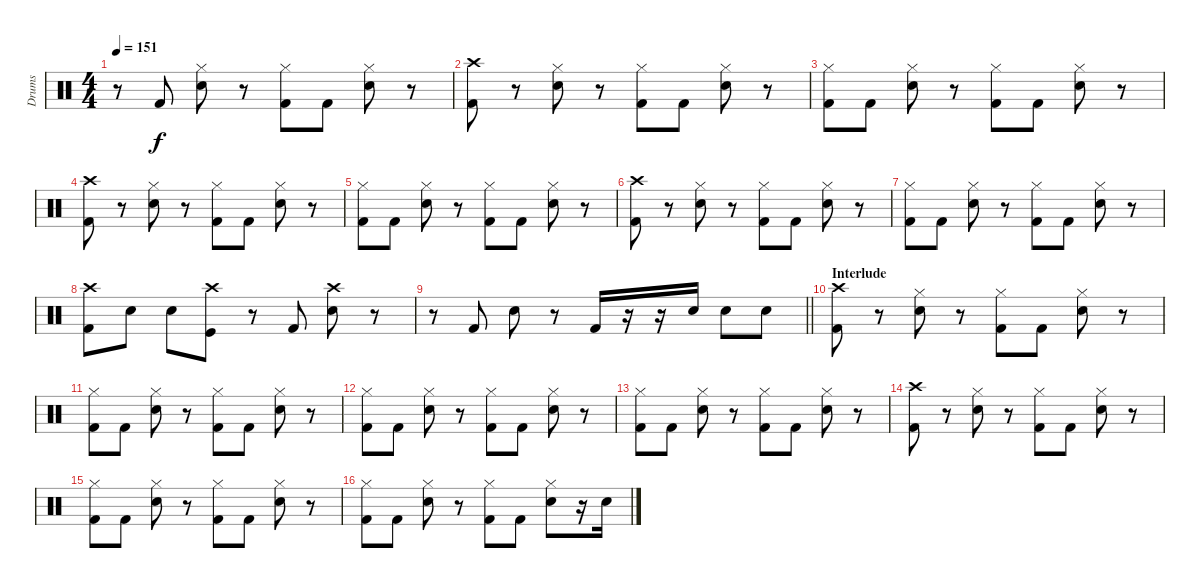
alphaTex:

\track ("Drums" "Drums") {instrument percussion}
\staff {score}
\articulation defaults
\ts (4 4)
\tempo 151
\clef neutral
\ks c
r.8{dy f} "Kick (hit) 2".8 ("Hi-Hat (closed)" "Snare (hit) 2").8 r.8 ("Hi-Hat (closed)" "Kick (hit) 2").8 "Kick (hit) 2".8 ("Hi-Hat (closed)" "Snare (hit) 2").8 r.8 |
("Crash high (hit)" "Kick (hit) 2").8 r.8 ("Hi-Hat (closed)" "Snare (hit) 2").8 r.8 ("Hi-Hat (closed)" "Kick (hit) 2").8 "Kick (hit) 2".8 ("Hi-Hat (closed)" "Snare (hit) 2").8 r.8 |
("Hi-Hat (closed)" "Kick (hit) 2").8 "Kick (hit) 2".8 ("Hi-Hat (closed)" "Snare (hit) 2").8 r.8 ("Hi-Hat (closed)" "Kick (hit) 2").8 "Kick (hit) 2".8 ("Hi-Hat (closed)" "Snare (hit) 2").8 r.8 |
("Crash high (hit)" "Kick (hit) 2").8 r.8 ("Hi-Hat (closed)" "Snare (hit) 2").8 r.8 ("Hi-Hat (closed)" "Kick (hit) 2").8 "Kick (hit) 2".8 ("Hi-Hat (closed)" "Snare (hit) 2").8 r.8 |
("Hi-Hat (closed)" "Kick (hit) 2").8 "Kick (hit) 2".8 ("Hi-Hat (closed)" "Snare (hit) 2").8 r.8 ("Hi-Hat (closed)" "Kick (hit) 2").8 "Kick (hit) 2".8 ("Hi-Hat (closed)" "Snare (hit) 2").8 r.8 |
("Crash high (hit)" "Kick (hit) 2").8 r.8 ("Hi-Hat (closed)" "Snare (hit) 2").8 r.8 ("Hi-Hat (closed)" "Kick (hit) 2").8 "Kick (hit) 2".8 ("Hi-Hat (closed)" "Snare (hit) 2").8 r.8 |
("Hi-Hat (closed)" "Kick (hit) 2").8 "Kick (hit) 2".8 ("Hi-Hat (closed)" "Snare (hit) 2").8 r.8 ("Hi-Hat (closed)" "Kick (hit) 2").8 "Kick (hit) 2".8 ("Hi-Hat (closed)" "Snare (hit) 2").8 r.8 |
("Crash high (hit)" "Kick (hit) 2").8 "Snare (hit) 2".8 "Snare (hit) 2".8 ("Crash high (hit)" "Kick (hit)").8 r.8 "Kick (hit) 2".8 ("Crash high (hit)" "Snare (hit) 2").8 r.8 |
\barLineRight lightlight
r.8 "Kick (hit) 2".8 "Snare (hit) 2".8 r.8 "Kick (hit) 2".16 r.16 r.16 "Snare (hit) 2".16 "Snare (hit) 2".8 "Snare (hit) 2".8 |
\section ("" "Interlude")
("Crash high (hit)" "Kick (hit) 2").8 r.8 ("Hi-Hat (closed)" "Snare (hit) 2").8 r.8 ("Hi-Hat (closed)" "Kick (hit) 2").8 "Kick (hit) 2".8 ("Hi-Hat (closed)" "Snare (hit) 2").8 r.8 |
("Hi-Hat (closed)" "Kick (hit) 2").8 "Kick (hit) 2".8 ("Hi-Hat (closed)" "Snare (hit) 2").8 r.8 ("Hi-Hat (closed)" "Kick (hit) 2").8 "Kick (hit) 2".8 ("Hi-Hat (closed)" "Snare (hit) 2").8 r.8 |
("Hi-Hat (closed)" "Kick (hit) 2").8 "Kick (hit) 2".8 ("Hi-Hat (closed)" "Snare (hit) 2").8 r.8 ("Hi-Hat (closed)" "Kick (hit) 2").8 "Kick (hit) 2".8 ("Hi-Hat (closed)" "Snare (hit) 2").8 r.8 |
("Hi-Hat (closed)" "Kick (hit) 2").8 "Kick (hit) 2".8 ("Hi-Hat (closed)" "Snare (hit) 2").8 r.8 ("Hi-Hat (closed)" "Kick (hit) 2").8 "Kick (hit) 2".8 ("Hi-Hat (closed)" "Snare (hit) 2").8 r.8 |
("Crash high (hit)" "Kick (hit) 2").8 r.8 ("Hi-Hat (closed)" "Snare (hit) 2").8 r.8 ("Hi-Hat (closed)" "Kick (hit) 2").8 "Kick (hit) 2".8 ("Hi-Hat (closed)" "Snare (hit) 2").8 r.8 |
("Hi-Hat (closed)" "Kick (hit) 2").8 "Kick (hit) 2".8 ("Hi-Hat (closed)" "Snare (hit) 2").8 r.8 ("Hi-Hat (closed)" "Kick (hit) 2").8 "Kick (hit) 2".8 ("Hi-Hat (closed)" "Snare (hit) 2").8 r.8 |
("Hi-Hat (closed)" "Kick (hit) 2").8 "Kick (hit) 2".8 ("Hi-Hat (closed)" "Snare (hit) 2").8 r.8 ("Hi-Hat (closed)" "Kick (hit) 2").8 "Kick (hit) 2".8 ("Hi-Hat (closed)" "Snare (hit) 2").8 r.16 "Snare (hit) 2".16
